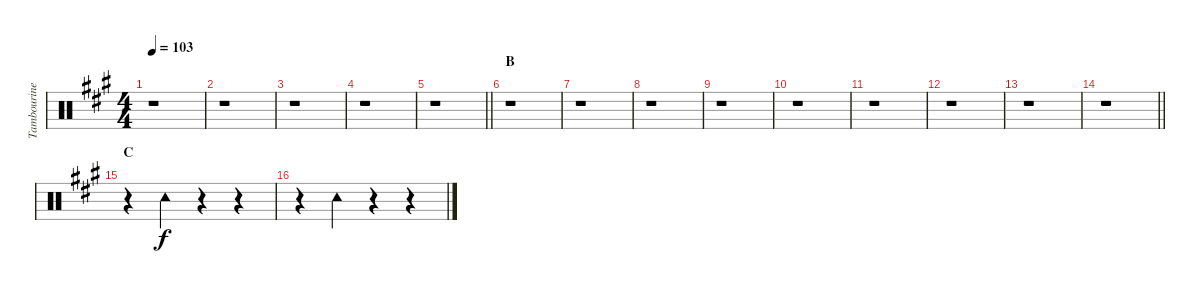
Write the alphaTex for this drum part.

\track ("Tambourine" "Tambourine") {instrument percussion}
\staff {score}
\articulation defaults
\ts (4 4)
\tempo 103
\clef neutral
\ks a
r.1{dy f} |
r.1 |
r.1 |
r.1 |
\barLineRight lightlight
r.1 |
\section ("" "B")
r.1 |
r.1 |
r.1 |
r.1 |
r.1 |
r.1 |
r.1 |
r.1 |
\barLineRight lightlight
r.1 |
\section ("" "C")
r.4 "Tambourine (hit)".4 r.4 r.4 |
r.4 "Tambourine (hit)".4 r.4 r.4
